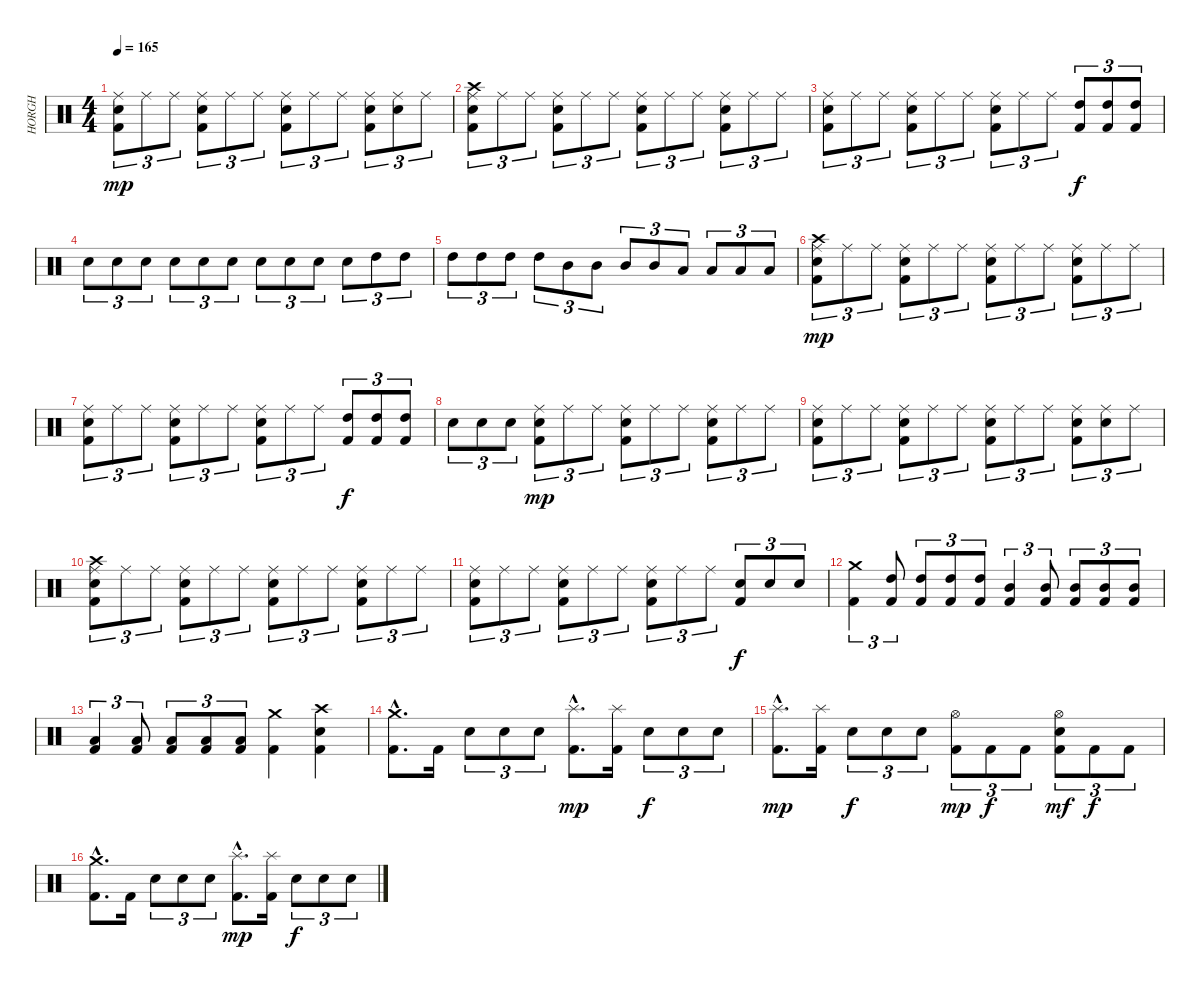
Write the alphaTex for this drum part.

\track ("HORGH" "HORGH") {instrument percussion}
\staff {score}
\articulation defaults
\ts (4 4)
\tempo 165
\clef neutral
\ks c
("Ride (middle)" "Kick (hit) 2" "Electric Snare (hit)").8{tu (3 2) dy mp} "Ride (middle)".8{tu (3 2)} "Ride (middle)".8{tu (3 2)} ("Ride (middle)" "Electric Snare (hit)" "Kick (hit) 2").8{tu (3 2)} "Ride (middle)".8{tu (3 2)} "Ride (middle)".8{tu (3 2)} ("Ride (middle)" "Electric Snare (hit)" "Kick (hit) 2").8{tu (3 2)} "Ride (middle)".8{tu (3 2)} "Ride (middle)".8{tu (3 2)} ("Ride (middle)" "Electric Snare (hit)" "Kick (hit) 2").8{tu (3 2)} ("Ride (middle)" "Electric Snare (hit)").8{tu (3 2)} "Ride (middle)".8{tu (3 2)} |
("Ride (middle)" "Crash high (hit)" "Kick (hit) 2" "Electric Snare (hit)").8{tu (3 2)} "Ride (middle)".8{tu (3 2)} "Ride (middle)".8{tu (3 2)} ("Ride (middle)" "Electric Snare (hit)" "Kick (hit) 2").8{tu (3 2)} "Ride (middle)".8{tu (3 2)} "Ride (middle)".8{tu (3 2)} ("Ride (middle)" "Electric Snare (hit)" "Kick (hit) 2").8{tu (3 2)} "Ride (middle)".8{tu (3 2)} "Ride (middle)".8{tu (3 2)} ("Ride (middle)" "Electric Snare (hit)" "Kick (hit) 2").8{tu (3 2)} "Ride (middle)".8{tu (3 2)} "Ride (middle)".8{tu (3 2)} |
("Ride (middle)" "Kick (hit) 2" "Electric Snare (hit)").8{tu (3 2)} "Ride (middle)".8{tu (3 2)} "Ride (middle)".8{tu (3 2)} ("Ride (middle)" "Electric Snare (hit)" "Kick (hit) 2").8{tu (3 2)} "Ride (middle)".8{tu (3 2)} "Ride (middle)".8{tu (3 2)} ("Ride (middle)" "Electric Snare (hit)" "Kick (hit) 2").8{tu (3 2)} "Ride (middle)".8{tu (3 2)} "Ride (middle)".8{tu (3 2)} ("High Tom (hit)" "Kick (hit) 2").8{tu (3 2) dy f} ("High Tom (hit)" "Kick (hit) 2").8{tu (3 2)} ("High Tom (hit)" "Kick (hit) 2").8{tu (3 2)} |
"Electric Snare (hit)".8{tu (3 2)} "Electric Snare (hit)".8{tu (3 2)} "Electric Snare (hit)".8{tu (3 2)} "Electric Snare (hit)".8{tu (3 2)} "Electric Snare (hit)".8{tu (3 2)} "Electric Snare (hit)".8{tu (3 2)} "Electric Snare (hit)".8{tu (3 2)} "Electric Snare (hit)".8{tu (3 2)} "Electric Snare (hit)".8{tu (3 2)} "Electric Snare (hit)".8{tu (3 2)} "High Tom (hit)".8{tu (3 2)} "High Tom (hit)".8{tu (3 2)} |
"High Tom (hit)".8{tu (3 2)} "High Tom (hit)".8{tu (3 2)} "High Tom (hit)".8{tu (3 2)} "High Tom (hit)".8{tu (3 2)} "Mid Tom (hit)".8{tu (3 2)} "Mid Tom (hit)".8{tu (3 2)} "Mid Tom (hit)".8{tu (3 2)} "Mid Tom (hit)".8{tu (3 2)} "Low Tom (hit)".8{tu (3 2)} "Low Tom (hit)".8{tu (3 2)} "Low Tom (hit)".8{tu (3 2)} "Low Tom (hit)".8{tu (3 2)} |
("Ride (middle)" "Crash high (hit)" "Kick (hit) 2" "Electric Snare (hit)").8{tu (3 2) dy mp} "Ride (middle)".8{tu (3 2)} "Ride (middle)".8{tu (3 2)} ("Ride (middle)" "Electric Snare (hit)" "Kick (hit) 2").8{tu (3 2)} "Ride (middle)".8{tu (3 2)} "Ride (middle)".8{tu (3 2)} ("Ride (middle)" "Electric Snare (hit)" "Kick (hit) 2").8{tu (3 2)} "Ride (middle)".8{tu (3 2)} "Ride (middle)".8{tu (3 2)} ("Ride (middle)" "Electric Snare (hit)" "Kick (hit) 2").8{tu (3 2)} "Ride (middle)".8{tu (3 2)} "Ride (middle)".8{tu (3 2)} |
("Ride (middle)" "Kick (hit) 2" "Electric Snare (hit)").8{tu (3 2)} "Ride (middle)".8{tu (3 2)} "Ride (middle)".8{tu (3 2)} ("Ride (middle)" "Electric Snare (hit)" "Kick (hit) 2").8{tu (3 2)} "Ride (middle)".8{tu (3 2)} "Ride (middle)".8{tu (3 2)} ("Ride (middle)" "Electric Snare (hit)" "Kick (hit) 2").8{tu (3 2)} "Ride (middle)".8{tu (3 2)} "Ride (middle)".8{tu (3 2)} ("High Tom (hit)" "Kick (hit) 2").8{tu (3 2) dy f} ("High Tom (hit)" "Kick (hit) 2").8{tu (3 2)} ("High Tom (hit)" "Kick (hit) 2").8{tu (3 2)} |
"Electric Snare (hit)".8{tu (3 2)} "Electric Snare (hit)".8{tu (3 2)} "Electric Snare (hit)".8{tu (3 2)} ("Ride (middle)" "Electric Snare (hit)" "Kick (hit) 2").8{tu (3 2) dy mp} "Ride (middle)".8{tu (3 2)} "Ride (middle)".8{tu (3 2)} ("Ride (middle)" "Electric Snare (hit)" "Kick (hit) 2").8{tu (3 2)} "Ride (middle)".8{tu (3 2)} "Ride (middle)".8{tu (3 2)} ("Ride (middle)" "Electric Snare (hit)" "Kick (hit) 2").8{tu (3 2)} "Ride (middle)".8{tu (3 2)} "Ride (middle)".8{tu (3 2)} |
("Ride (middle)" "Kick (hit) 2" "Electric Snare (hit)").8{tu (3 2)} "Ride (middle)".8{tu (3 2)} "Ride (middle)".8{tu (3 2)} ("Ride (middle)" "Electric Snare (hit)" "Kick (hit) 2").8{tu (3 2)} "Ride (middle)".8{tu (3 2)} "Ride (middle)".8{tu (3 2)} ("Ride (middle)" "Electric Snare (hit)" "Kick (hit) 2").8{tu (3 2)} "Ride (middle)".8{tu (3 2)} "Ride (middle)".8{tu (3 2)} ("Ride (middle)" "Electric Snare (hit)" "Kick (hit) 2").8{tu (3 2)} ("Ride (middle)" "Electric Snare (hit)").8{tu (3 2)} "Ride (middle)".8{tu (3 2)} |
("Ride (middle)" "Crash high (hit)" "Kick (hit) 2" "Electric Snare (hit)").8{tu (3 2)} "Ride (middle)".8{tu (3 2)} "Ride (middle)".8{tu (3 2)} ("Ride (middle)" "Electric Snare (hit)" "Kick (hit) 2").8{tu (3 2)} "Ride (middle)".8{tu (3 2)} "Ride (middle)".8{tu (3 2)} ("Ride (middle)" "Electric Snare (hit)" "Kick (hit) 2").8{tu (3 2)} "Ride (middle)".8{tu (3 2)} "Ride (middle)".8{tu (3 2)} ("Ride (middle)" "Electric Snare (hit)" "Kick (hit) 2").8{tu (3 2)} "Ride (middle)".8{tu (3 2)} "Ride (middle)".8{tu (3 2)} |
("Ride (middle)" "Kick (hit) 2" "Electric Snare (hit)").8{tu (3 2)} "Ride (middle)".8{tu (3 2)} "Ride (middle)".8{tu (3 2)} ("Ride (middle)" "Electric Snare (hit)" "Kick (hit) 2").8{tu (3 2)} "Ride (middle)".8{tu (3 2)} "Ride (middle)".8{tu (3 2)} ("Ride (middle)" "Electric Snare (hit)" "Kick (hit) 2").8{tu (3 2)} "Ride (middle)".8{tu (3 2)} "Ride (middle)".8{tu (3 2)} ("Electric Snare (hit)" "Kick (hit) 2").8{tu (3 2) dy f} "Electric Snare (hit)".8{tu (3 2)} "Electric Snare (hit)".8{tu (3 2)} |
("Crash medium (hit)" "Kick (hit) 2").4{tu (3 2)} ("High Tom (hit)" "Kick (hit) 2").8{tu (3 2)} ("High Tom (hit)" "Kick (hit) 2").8{tu (3 2)} ("High Tom (hit)" "Kick (hit) 2").8{tu (3 2)} ("High Tom (hit)" "Kick (hit) 2").8{tu (3 2)} ("Mid Tom (hit)" "Kick (hit) 2").4{tu (3 2)} ("Mid Tom (hit)" "Kick (hit) 2").8{tu (3 2)} ("Mid Tom (hit)" "Kick (hit) 2").8{tu (3 2)} ("Mid Tom (hit)" "Kick (hit) 2").8{tu (3 2)} ("Mid Tom (hit)" "Kick (hit) 2").8{tu (3 2)} |
("Low Tom (hit)" "Kick (hit) 2").4{tu (3 2)} ("Low Tom (hit)" "Kick (hit) 2").8{tu (3 2)} ("Low Tom (hit)" "Kick (hit) 2").8{tu (3 2)} ("Low Tom (hit)" "Kick (hit) 2").8{tu (3 2)} ("Low Tom (hit)" "Kick (hit) 2").8{tu (3 2)} ("Crash medium (hit)" "Kick (hit) 2").4 ("Crash high (hit)" "Electric Snare (hit)" "Kick (hit) 2").4 |
("Crash medium (hit)"{hac} "Kick (hit) 2"{hac}).8{d} "Kick (hit) 2".16 "Electric Snare (hit)".8{tu (3 2)} "Electric Snare (hit)".8{tu (3 2)} "Electric Snare (hit)".8{tu (3 2)} ("Splash (hit)"{hac} "Kick (hit) 2"{hac}).8{d dy mp} ("Splash (hit)" "Kick (hit) 2").16 "Electric Snare (hit)".8{tu (3 2) dy f} "Electric Snare (hit)".8{tu (3 2)} "Electric Snare (hit)".8{tu (3 2)} |
("Splash (hit)"{hac} "Kick (hit) 2"{hac}).8{d dy mp} ("Splash (hit)" "Kick (hit) 2").16 "Electric Snare (hit)".8{tu (3 2) dy f} "Electric Snare (hit)".8{tu (3 2)} "Electric Snare (hit)".8{tu (3 2)} ("Hi-Hat (open)" "Kick (hit) 2").8{tu (3 2) dy mp} "Kick (hit) 2".8{tu (3 2) dy f} "Kick (hit) 2".8{tu (3 2)} ("Hi-Hat (open)" "Electric Snare (hit)" "Kick (hit) 2").8{tu (3 2) dy mf} "Kick (hit) 2".8{tu (3 2) dy f} "Kick (hit) 2".8{tu (3 2)} |
("Crash medium (hit)"{hac} "Kick (hit) 2"{hac}).8{d} "Kick (hit) 2".16 "Electric Snare (hit)".8{tu (3 2)} "Electric Snare (hit)".8{tu (3 2)} "Electric Snare (hit)".8{tu (3 2)} ("Splash (hit)"{hac} "Kick (hit) 2"{hac}).8{d dy mp} ("Splash (hit)" "Kick (hit) 2").16 "Electric Snare (hit)".8{tu (3 2) dy f} "Electric Snare (hit)".8{tu (3 2)} "Electric Snare (hit)".8{tu (3 2)}
